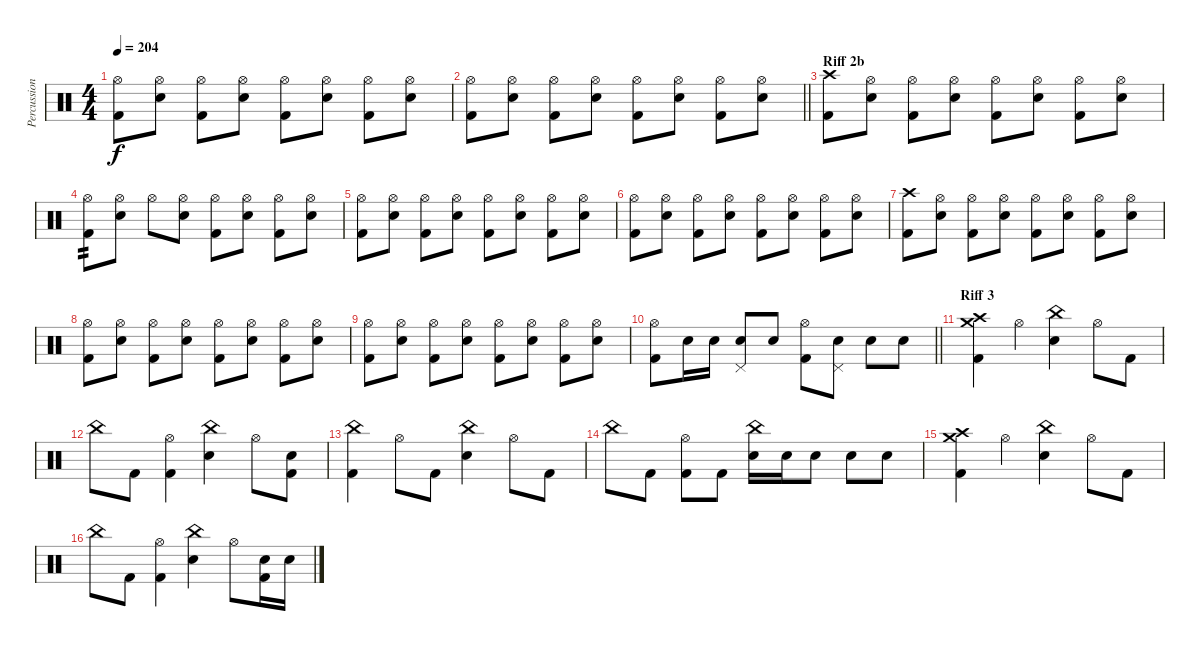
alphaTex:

\track ("Percussions" "Percussion") {instrument percussion}
\staff {score}
\articulation defaults
\ts (4 4)
\tempo 204
\clef neutral
\ks c
("Hi-Hat (open)" "Kick (hit) 2").8{dy f} ("Hi-Hat (open)" "Electric Snare (hit)").8 ("Hi-Hat (open)" "Kick (hit) 2").8 ("Hi-Hat (open)" "Electric Snare (hit)").8 ("Hi-Hat (open)" "Kick (hit) 2").8 ("Hi-Hat (open)" "Electric Snare (hit)").8 ("Hi-Hat (open)" "Kick (hit) 2").8 ("Hi-Hat (open)" "Electric Snare (hit)").8 |
\barLineRight lightlight
("Hi-Hat (open)" "Kick (hit) 2").8 ("Hi-Hat (open)" "Electric Snare (hit)").8 ("Hi-Hat (open)" "Kick (hit) 2").8 ("Hi-Hat (open)" "Electric Snare (hit)").8 ("Hi-Hat (open)" "Kick (hit) 2").8 ("Hi-Hat (open)" "Electric Snare (hit)").8 ("Hi-Hat (open)" "Kick (hit) 2").8 ("Hi-Hat (open)" "Electric Snare (hit)").8 |
\section ("" "Riff 2b")
("Crash high (hit)" "Kick (hit) 2").8 ("Hi-Hat (open)" "Electric Snare (hit)").8 ("Hi-Hat (open)" "Kick (hit) 2").8 ("Hi-Hat (open)" "Electric Snare (hit)").8 ("Hi-Hat (open)" "Kick (hit) 2").8 ("Hi-Hat (open)" "Electric Snare (hit)").8 ("Hi-Hat (open)" "Kick (hit) 2").8 ("Hi-Hat (open)" "Electric Snare (hit)").8 |
("Hi-Hat (open)" "Kick (hit) 2").8{tp 2} ("Hi-Hat (open)" "Electric Snare (hit)").8 "Hi-Hat (open)".8 ("Hi-Hat (open)" "Electric Snare (hit)").8 ("Hi-Hat (open)" "Kick (hit) 2").8 ("Hi-Hat (open)" "Electric Snare (hit)").8 ("Hi-Hat (open)" "Kick (hit) 2").8 ("Hi-Hat (open)" "Electric Snare (hit)").8 |
("Hi-Hat (open)" "Kick (hit) 2").8 ("Hi-Hat (open)" "Electric Snare (hit)").8 ("Hi-Hat (open)" "Kick (hit) 2").8 ("Hi-Hat (open)" "Electric Snare (hit)").8 ("Hi-Hat (open)" "Kick (hit) 2").8 ("Hi-Hat (open)" "Electric Snare (hit)").8 ("Hi-Hat (open)" "Kick (hit) 2").8 ("Hi-Hat (open)" "Electric Snare (hit)").8 |
("Hi-Hat (open)" "Kick (hit) 2").8 ("Hi-Hat (open)" "Electric Snare (hit)").8 ("Hi-Hat (open)" "Kick (hit) 2").8 ("Hi-Hat (open)" "Electric Snare (hit)").8 ("Hi-Hat (open)" "Kick (hit) 2").8 ("Hi-Hat (open)" "Electric Snare (hit)").8 ("Hi-Hat (open)" "Kick (hit) 2").8 ("Hi-Hat (open)" "Electric Snare (hit)").8 |
("Crash high (hit)" "Kick (hit) 2").8 ("Hi-Hat (open)" "Electric Snare (hit)").8 ("Hi-Hat (open)" "Kick (hit) 2").8 ("Hi-Hat (open)" "Electric Snare (hit)").8 ("Hi-Hat (open)" "Kick (hit) 2").8 ("Hi-Hat (open)" "Electric Snare (hit)").8 ("Hi-Hat (open)" "Kick (hit) 2").8 ("Hi-Hat (open)" "Electric Snare (hit)").8 |
("Hi-Hat (open)" "Kick (hit) 2").8 ("Hi-Hat (open)" "Electric Snare (hit)").8 ("Hi-Hat (open)" "Kick (hit) 2").8 ("Hi-Hat (open)" "Electric Snare (hit)").8 ("Hi-Hat (open)" "Kick (hit) 2").8 ("Hi-Hat (open)" "Electric Snare (hit)").8 ("Hi-Hat (open)" "Kick (hit) 2").8 ("Hi-Hat (open)" "Electric Snare (hit)").8 |
("Hi-Hat (open)" "Kick (hit) 2").8 ("Hi-Hat (open)" "Electric Snare (hit)").8 ("Hi-Hat (open)" "Kick (hit) 2").8 ("Hi-Hat (open)" "Electric Snare (hit)").8 ("Hi-Hat (open)" "Kick (hit) 2").8 ("Hi-Hat (open)" "Electric Snare (hit)").8 ("Hi-Hat (open)" "Kick (hit) 2").8 ("Hi-Hat (open)" "Electric Snare (hit)").8 |
\barLineRight lightlight
("Hi-Hat (open)" "Kick (hit) 2").8 "Electric Snare (hit)".16 "Electric Snare (hit)".16 ("Pedal Hi-Hat (hit)" "Electric Snare (hit)").8 "Electric Snare (hit)".8 ("Hi-Hat (open)" "Kick (hit) 2").8 ("Pedal Hi-Hat (hit)" "Electric Snare (hit)").8 "Electric Snare (hit)".8 "Electric Snare (hit)".8 |
\section ("" "Riff 3")
("Crash medium (hit)" "Crash high (hit)" "Kick (hit) 2").4 "Hi-Hat (open)".4 ("China (hit)" "Electric Snare (hit)").4 "Hi-Hat (open)".8 "Kick (hit) 2".8 |
"China (hit)".8 "Kick (hit) 2".8 ("Hi-Hat (open)" "Kick (hit) 2").4 ("China (hit)" "Electric Snare (hit)").4 "Hi-Hat (open)".8 ("Electric Snare (hit)" "Kick (hit) 2").8 |
("China (hit)" "Kick (hit) 2").4 "Hi-Hat (open)".8 "Kick (hit) 2".8 ("China (hit)" "Electric Snare (hit)").4 "Hi-Hat (open)".8 "Kick (hit) 2".8 |
"China (hit)".8 "Kick (hit) 2".8 ("Hi-Hat (open)" "Kick (hit) 2").8 "Kick (hit) 2".8 ("China (hit)" "Electric Snare (hit)").16 "Electric Snare (hit)".16 "Electric Snare (hit)".8 "Electric Snare (hit)".8 "Electric Snare (hit)".8 |
("Crash medium (hit)" "Crash high (hit)" "Kick (hit) 2").4 "Hi-Hat (open)".4 ("China (hit)" "Electric Snare (hit)").4 "Hi-Hat (open)".8 "Kick (hit) 2".8 |
"China (hit)".8 "Kick (hit) 2".8 ("Hi-Hat (open)" "Kick (hit) 2").4 ("China (hit)" "Electric Snare (hit)").4 "Hi-Hat (open)".8 ("Electric Snare (hit)" "Kick (hit) 2").16 "Electric Snare (hit)".16
